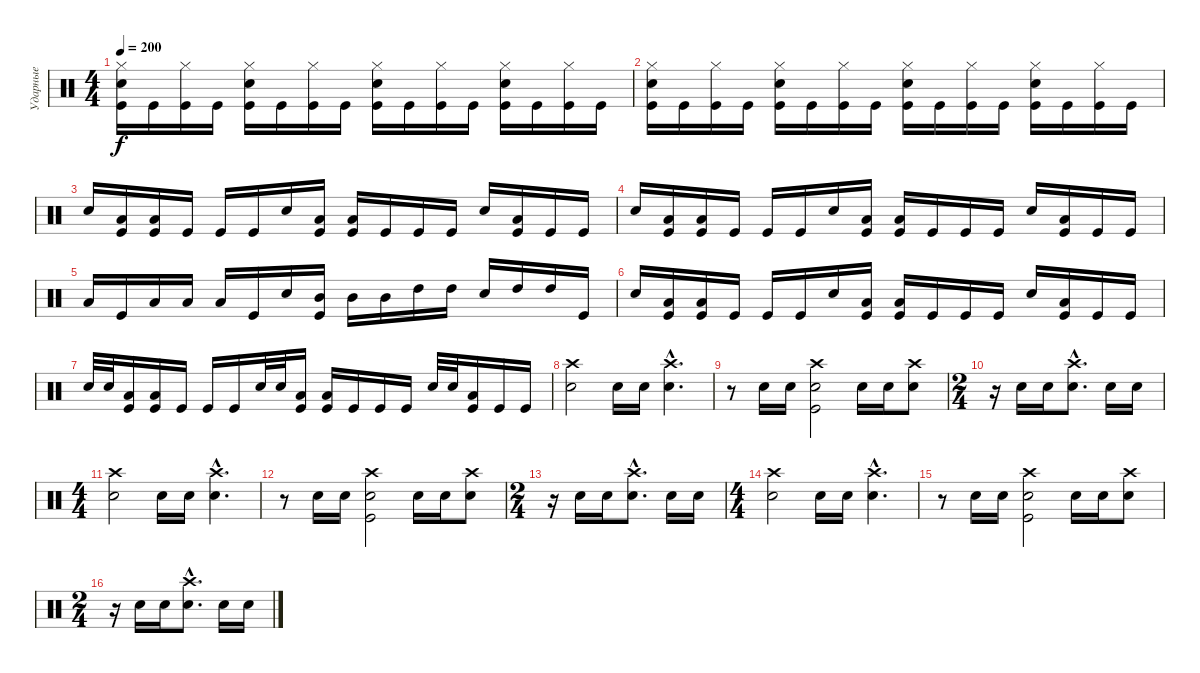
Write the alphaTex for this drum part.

\track ("Ударные" "Ударные") {instrument percussion}
\staff {score}
\articulation defaults
\ts (4 4)
\tempo 200
\clef neutral
\ks c
("Hi-Hat (closed)" "Electric Snare (hit)" "Kick (hit)").16{dy f} "Kick (hit)".16 ("Hi-Hat (closed)" "Kick (hit)").16 "Kick (hit)".16 ("Hi-Hat (closed)" "Electric Snare (hit)" "Kick (hit)").16 "Kick (hit)".16 ("Hi-Hat (closed)" "Kick (hit)").16 "Kick (hit)".16 ("Hi-Hat (closed)" "Electric Snare (hit)" "Kick (hit)").16 "Kick (hit)".16 ("Hi-Hat (closed)" "Kick (hit)").16 "Kick (hit)".16 ("Hi-Hat (closed)" "Electric Snare (hit)" "Kick (hit)").16 "Kick (hit)".16 ("Hi-Hat (closed)" "Kick (hit)").16 "Kick (hit)".16 |
("Hi-Hat (closed)" "Electric Snare (hit)" "Kick (hit)").16 "Kick (hit)".16 ("Hi-Hat (closed)" "Kick (hit)").16 "Kick (hit)".16 ("Hi-Hat (closed)" "Electric Snare (hit)" "Kick (hit)").16 "Kick (hit)".16 ("Hi-Hat (closed)" "Kick (hit)").16 "Kick (hit)".16 ("Hi-Hat (closed)" "Electric Snare (hit)" "Kick (hit)").16 "Kick (hit)".16 ("Hi-Hat (closed)" "Kick (hit)").16 "Kick (hit)".16 ("Hi-Hat (closed)" "Electric Snare (hit)" "Kick (hit)").16 "Kick (hit)".16 ("Hi-Hat (closed)" "Kick (hit)").16 "Kick (hit)".16 |
"Electric Snare (hit)".16 ("Low Tom (hit)" "Kick (hit)").16 ("Low Tom (hit)" "Kick (hit)").16 "Kick (hit)".16 "Kick (hit)".16 "Kick (hit)".16 "Electric Snare (hit)".16 ("Low Tom (hit)" "Kick (hit)").16 ("Low Tom (hit)" "Kick (hit)").16 "Kick (hit)".16 "Kick (hit)".16 "Kick (hit)".16 "Electric Snare (hit)".16 ("Low Tom (hit)" "Kick (hit)").16 "Kick (hit)".16 "Kick (hit)".16 |
"Electric Snare (hit)".16 ("Low Tom (hit)" "Kick (hit)").16 ("Low Tom (hit)" "Kick (hit)").16 "Kick (hit)".16 "Kick (hit)".16 "Kick (hit)".16 "Electric Snare (hit)".16 ("Low Tom (hit)" "Kick (hit)").16 ("Low Tom (hit)" "Kick (hit)").16 "Kick (hit)".16 "Kick (hit)".16 "Kick (hit)".16 "Electric Snare (hit)".16 ("Low Tom (hit)" "Kick (hit)").16 "Kick (hit)".16 "Kick (hit)".16 |
"Low Tom (hit)".16 "Kick (hit)".16 "Low Tom (hit)".16 "Low Tom (hit)".16 "Low Tom (hit)".16 "Kick (hit)".16 "Electric Snare (hit)".16 ("Mid Tom (hit)" "Kick (hit)").16 "Mid Tom (hit)".16 "Mid Tom (hit)".16 "High Tom (hit)".16 "High Tom (hit)".16 "Electric Snare (hit)".16 "High Tom (hit)".16 "High Tom (hit)".16 "Kick (hit)".16 |
"Electric Snare (hit)".16 ("Low Tom (hit)" "Kick (hit)").16 ("Low Tom (hit)" "Kick (hit)").16 "Kick (hit)".16 "Kick (hit)".16 "Kick (hit)".16 "Electric Snare (hit)".16 ("Low Tom (hit)" "Kick (hit)").16 ("Low Tom (hit)" "Kick (hit)").16 "Kick (hit)".16 "Kick (hit)".16 "Kick (hit)".16 "Electric Snare (hit)".16 ("Low Tom (hit)" "Kick (hit)").16 "Kick (hit)".16 "Kick (hit)".16 |
"Electric Snare (hit)".32 "Electric Snare (hit)".32 ("Low Tom (hit)" "Kick (hit)").16 ("Low Tom (hit)" "Kick (hit)").16 "Kick (hit)".16 "Kick (hit)".16 "Kick (hit)".16 "Electric Snare (hit)".32 "Electric Snare (hit)".32 ("Low Tom (hit)" "Kick (hit)").16 ("Low Tom (hit)" "Kick (hit)").16 "Kick (hit)".16 "Kick (hit)".16 "Kick (hit)".16 "Electric Snare (hit)".32 "Electric Snare (hit)".32 ("Low Tom (hit)" "Kick (hit)").16 "Kick (hit)".16 "Kick (hit)".16 |
("Crash high (hit)" "Electric Snare (hit)").2 "Electric Snare (hit)".16 "Electric Snare (hit)".16 ("Crash high (hit)"{hac} "Electric Snare (hit)"{hac}).4{d} |
r.8 "Electric Snare (hit)".16 "Electric Snare (hit)".16 ("Crash high (hit)" "Electric Snare (hit)" "Kick (hit)").2 "Electric Snare (hit)".16 "Electric Snare (hit)".16 ("Crash high (hit)" "Electric Snare (hit)").8 |
\ts (2 4)
r.16 "Electric Snare (hit)".16 "Electric Snare (hit)".16 ("Crash high (hit)"{hac} "Electric Snare (hit)"{hac}).8{d} "Electric Snare (hit)".16 "Electric Snare (hit)".16 |
\ts (4 4)
("Crash high (hit)" "Electric Snare (hit)").2 "Electric Snare (hit)".16 "Electric Snare (hit)".16 ("Crash high (hit)"{hac} "Electric Snare (hit)"{hac}).4{d} |
r.8 "Electric Snare (hit)".16 "Electric Snare (hit)".16 ("Crash high (hit)" "Electric Snare (hit)" "Kick (hit)").2 "Electric Snare (hit)".16 "Electric Snare (hit)".16 ("Crash high (hit)" "Electric Snare (hit)").8 |
\ts (2 4)
r.16 "Electric Snare (hit)".16 "Electric Snare (hit)".16 ("Crash high (hit)"{hac} "Electric Snare (hit)"{hac}).8{d} "Electric Snare (hit)".16 "Electric Snare (hit)".16 |
\ts (4 4)
("Crash high (hit)" "Electric Snare (hit)").2 "Electric Snare (hit)".16 "Electric Snare (hit)".16 ("Crash high (hit)"{hac} "Electric Snare (hit)"{hac}).4{d} |
r.8 "Electric Snare (hit)".16 "Electric Snare (hit)".16 ("Crash high (hit)" "Electric Snare (hit)" "Kick (hit)").2 "Electric Snare (hit)".16 "Electric Snare (hit)".16 ("Crash high (hit)" "Electric Snare (hit)").8 |
\ts (2 4)
r.16 "Electric Snare (hit)".16 "Electric Snare (hit)".16 ("Crash high (hit)"{hac} "Electric Snare (hit)"{hac}).8{d} "Electric Snare (hit)".16 "Electric Snare (hit)".16
